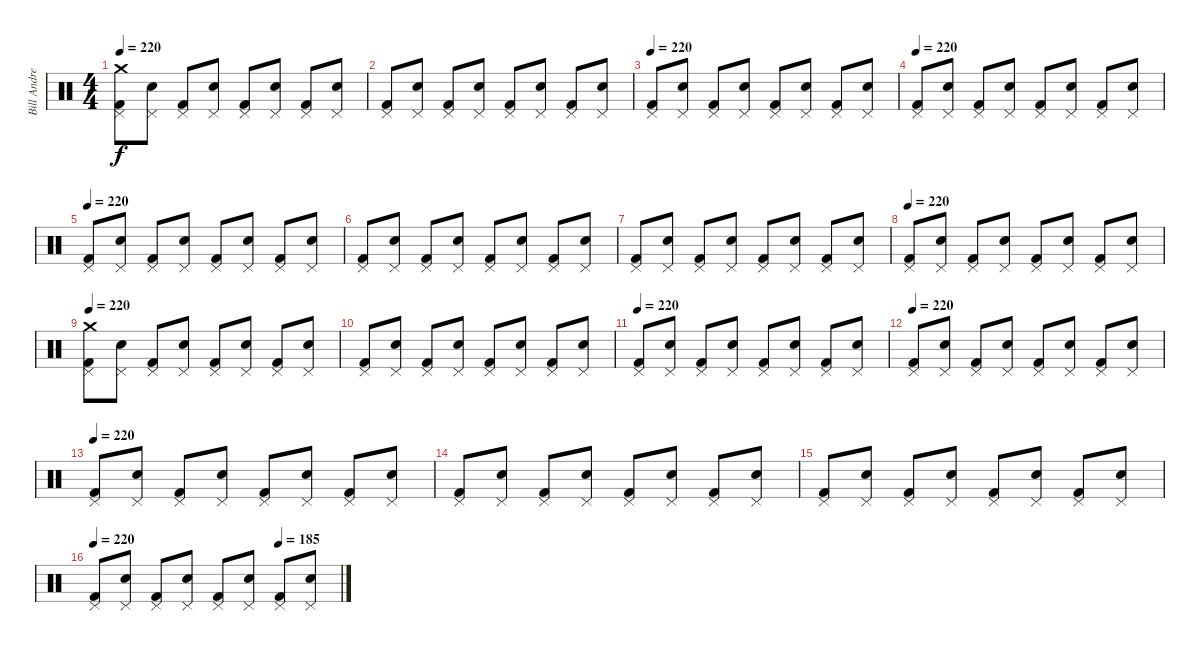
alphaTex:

\track ("Bill Andrews" "Bill Andre") {instrument percussion}
\staff {score}
\articulation defaults
\ts (4 4)
\tempo 220
\clef neutral
\ks c
("Crash medium (hit)" "Pedal Hi-Hat (hit)" "Kick (hit) 2").8{dy f} ("Pedal Hi-Hat (hit)" "Snare (hit) 2").8 ("Pedal Hi-Hat (hit)" "Kick (hit) 2").8 ("Pedal Hi-Hat (hit)" "Snare (hit) 2").8 ("Pedal Hi-Hat (hit)" "Kick (hit) 2").8 ("Pedal Hi-Hat (hit)" "Snare (hit) 2").8 ("Pedal Hi-Hat (hit)" "Kick (hit) 2").8 ("Pedal Hi-Hat (hit)" "Snare (hit) 2").8 |
("Pedal Hi-Hat (hit)" "Kick (hit) 2").8 ("Pedal Hi-Hat (hit)" "Snare (hit) 2").8 ("Pedal Hi-Hat (hit)" "Kick (hit) 2").8 ("Pedal Hi-Hat (hit)" "Snare (hit) 2").8 ("Pedal Hi-Hat (hit)" "Kick (hit) 2").8 ("Pedal Hi-Hat (hit)" "Snare (hit) 2").8 ("Pedal Hi-Hat (hit)" "Kick (hit) 2").8 ("Pedal Hi-Hat (hit)" "Snare (hit) 2").8 |
\tempo 220
("Pedal Hi-Hat (hit)" "Kick (hit) 2").8 ("Pedal Hi-Hat (hit)" "Snare (hit) 2").8 ("Pedal Hi-Hat (hit)" "Kick (hit) 2").8 ("Pedal Hi-Hat (hit)" "Snare (hit) 2").8 ("Pedal Hi-Hat (hit)" "Kick (hit) 2").8 ("Pedal Hi-Hat (hit)" "Snare (hit) 2").8 ("Pedal Hi-Hat (hit)" "Kick (hit) 2").8 ("Pedal Hi-Hat (hit)" "Snare (hit) 2").8 |
\tempo 220
("Pedal Hi-Hat (hit)" "Kick (hit) 2").8 ("Pedal Hi-Hat (hit)" "Snare (hit) 2").8 ("Pedal Hi-Hat (hit)" "Kick (hit) 2").8 ("Pedal Hi-Hat (hit)" "Snare (hit) 2").8 ("Pedal Hi-Hat (hit)" "Kick (hit) 2").8 ("Pedal Hi-Hat (hit)" "Snare (hit) 2").8 ("Pedal Hi-Hat (hit)" "Kick (hit) 2").8 ("Pedal Hi-Hat (hit)" "Snare (hit) 2").8 |
\tempo 220
("Pedal Hi-Hat (hit)" "Kick (hit) 2").8 ("Pedal Hi-Hat (hit)" "Snare (hit) 2").8 ("Pedal Hi-Hat (hit)" "Kick (hit) 2").8 ("Pedal Hi-Hat (hit)" "Snare (hit) 2").8 ("Pedal Hi-Hat (hit)" "Kick (hit) 2").8 ("Pedal Hi-Hat (hit)" "Snare (hit) 2").8 ("Pedal Hi-Hat (hit)" "Kick (hit) 2").8 ("Pedal Hi-Hat (hit)" "Snare (hit) 2").8 |
("Pedal Hi-Hat (hit)" "Kick (hit) 2").8 ("Pedal Hi-Hat (hit)" "Snare (hit) 2").8 ("Pedal Hi-Hat (hit)" "Kick (hit) 2").8 ("Pedal Hi-Hat (hit)" "Snare (hit) 2").8 ("Pedal Hi-Hat (hit)" "Kick (hit) 2").8 ("Pedal Hi-Hat (hit)" "Snare (hit) 2").8 ("Pedal Hi-Hat (hit)" "Kick (hit) 2").8 ("Pedal Hi-Hat (hit)" "Snare (hit) 2").8 |
("Pedal Hi-Hat (hit)" "Kick (hit) 2").8 ("Pedal Hi-Hat (hit)" "Snare (hit) 2").8 ("Pedal Hi-Hat (hit)" "Kick (hit) 2").8 ("Pedal Hi-Hat (hit)" "Snare (hit) 2").8 ("Pedal Hi-Hat (hit)" "Kick (hit) 2").8 ("Pedal Hi-Hat (hit)" "Snare (hit) 2").8 ("Pedal Hi-Hat (hit)" "Kick (hit) 2").8 ("Pedal Hi-Hat (hit)" "Snare (hit) 2").8 |
\tempo 220
("Pedal Hi-Hat (hit)" "Kick (hit) 2").8 ("Pedal Hi-Hat (hit)" "Snare (hit) 2").8 ("Pedal Hi-Hat (hit)" "Kick (hit) 2").8 ("Pedal Hi-Hat (hit)" "Snare (hit) 2").8 ("Pedal Hi-Hat (hit)" "Kick (hit) 2").8 ("Pedal Hi-Hat (hit)" "Snare (hit) 2").8 ("Pedal Hi-Hat (hit)" "Kick (hit) 2").8 ("Pedal Hi-Hat (hit)" "Snare (hit) 2").8 |
\tempo 220
("Crash medium (hit)" "Pedal Hi-Hat (hit)" "Kick (hit) 2").8 ("Pedal Hi-Hat (hit)" "Snare (hit) 2").8 ("Pedal Hi-Hat (hit)" "Kick (hit) 2").8 ("Pedal Hi-Hat (hit)" "Snare (hit) 2").8 ("Pedal Hi-Hat (hit)" "Kick (hit) 2").8 ("Pedal Hi-Hat (hit)" "Snare (hit) 2").8 ("Pedal Hi-Hat (hit)" "Kick (hit) 2").8 ("Pedal Hi-Hat (hit)" "Snare (hit) 2").8 |
("Pedal Hi-Hat (hit)" "Kick (hit) 2").8 ("Pedal Hi-Hat (hit)" "Snare (hit) 2").8 ("Pedal Hi-Hat (hit)" "Kick (hit) 2").8 ("Pedal Hi-Hat (hit)" "Snare (hit) 2").8 ("Pedal Hi-Hat (hit)" "Kick (hit) 2").8 ("Pedal Hi-Hat (hit)" "Snare (hit) 2").8 ("Pedal Hi-Hat (hit)" "Kick (hit) 2").8 ("Pedal Hi-Hat (hit)" "Snare (hit) 2").8 |
\tempo 220
("Pedal Hi-Hat (hit)" "Kick (hit) 2").8 ("Pedal Hi-Hat (hit)" "Snare (hit) 2").8 ("Pedal Hi-Hat (hit)" "Kick (hit) 2").8 ("Pedal Hi-Hat (hit)" "Snare (hit) 2").8 ("Pedal Hi-Hat (hit)" "Kick (hit) 2").8 ("Pedal Hi-Hat (hit)" "Snare (hit) 2").8 ("Pedal Hi-Hat (hit)" "Kick (hit) 2").8 ("Pedal Hi-Hat (hit)" "Snare (hit) 2").8 |
\tempo 220
("Pedal Hi-Hat (hit)" "Kick (hit) 2").8 ("Pedal Hi-Hat (hit)" "Snare (hit) 2").8 ("Pedal Hi-Hat (hit)" "Kick (hit) 2").8 ("Pedal Hi-Hat (hit)" "Snare (hit) 2").8 ("Pedal Hi-Hat (hit)" "Kick (hit) 2").8 ("Pedal Hi-Hat (hit)" "Snare (hit) 2").8 ("Pedal Hi-Hat (hit)" "Kick (hit) 2").8 ("Pedal Hi-Hat (hit)" "Snare (hit) 2").8 |
\tempo 220
("Pedal Hi-Hat (hit)" "Kick (hit) 2").8 ("Pedal Hi-Hat (hit)" "Snare (hit) 2").8 ("Pedal Hi-Hat (hit)" "Kick (hit) 2").8 ("Pedal Hi-Hat (hit)" "Snare (hit) 2").8 ("Pedal Hi-Hat (hit)" "Kick (hit) 2").8 ("Pedal Hi-Hat (hit)" "Snare (hit) 2").8 ("Pedal Hi-Hat (hit)" "Kick (hit) 2").8 ("Pedal Hi-Hat (hit)" "Snare (hit) 2").8 |
("Pedal Hi-Hat (hit)" "Kick (hit) 2").8 ("Pedal Hi-Hat (hit)" "Snare (hit) 2").8 ("Pedal Hi-Hat (hit)" "Kick (hit) 2").8 ("Pedal Hi-Hat (hit)" "Snare (hit) 2").8 ("Pedal Hi-Hat (hit)" "Kick (hit) 2").8 ("Pedal Hi-Hat (hit)" "Snare (hit) 2").8 ("Pedal Hi-Hat (hit)" "Kick (hit) 2").8 ("Pedal Hi-Hat (hit)" "Snare (hit) 2").8 |
("Pedal Hi-Hat (hit)" "Kick (hit) 2").8 ("Pedal Hi-Hat (hit)" "Snare (hit) 2").8 ("Pedal Hi-Hat (hit)" "Kick (hit) 2").8 ("Pedal Hi-Hat (hit)" "Snare (hit) 2").8 ("Pedal Hi-Hat (hit)" "Kick (hit) 2").8 ("Pedal Hi-Hat (hit)" "Snare (hit) 2").8 ("Pedal Hi-Hat (hit)" "Kick (hit) 2").8 ("Pedal Hi-Hat (hit)" "Snare (hit) 2").8 |
\tempo 220
\tempo (185 0.75)
("Pedal Hi-Hat (hit)" "Kick (hit) 2").8 ("Pedal Hi-Hat (hit)" "Snare (hit) 2").8 ("Pedal Hi-Hat (hit)" "Kick (hit) 2").8 ("Pedal Hi-Hat (hit)" "Snare (hit) 2").8 ("Pedal Hi-Hat (hit)" "Kick (hit) 2").8 ("Pedal Hi-Hat (hit)" "Snare (hit) 2").8 ("Pedal Hi-Hat (hit)" "Kick (hit) 2").8 ("Pedal Hi-Hat (hit)" "Snare (hit) 2").8
